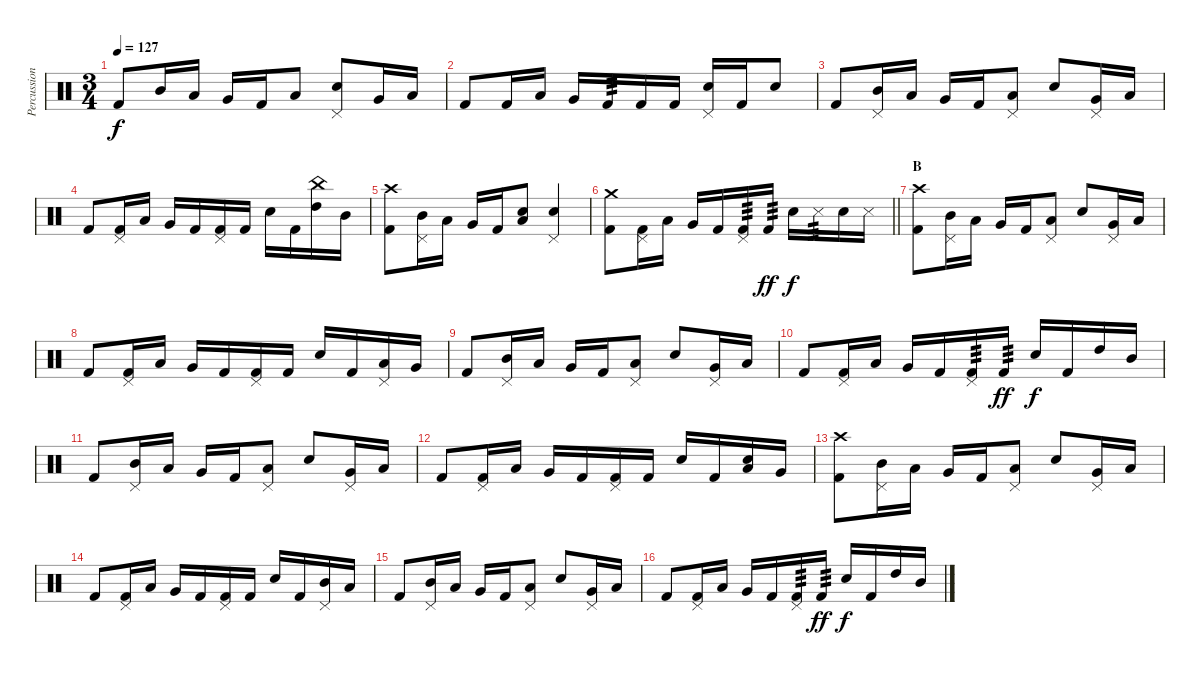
\track ("Percussion" "Percussion") {instrument percussion}
\staff {score}
\articulation defaults
\ts (3 4)
\tempo 127
\clef neutral
\ks c "Kick (hit) 2".8{dy f} "Mid Tom (hit)".16 "Low Tom (hit)".16 "Very Low Tom (hit)".16 "Kick (hit) 2".16 "Low Tom (hit)".8
("Pedal Hi-Hat (hit)" "Snare (hit) 2").8 "Very Low Tom (hit)".16 "Low Floor Tom (hit)".16 |
"Kick (hit) 2".8 "Kick (hit) 2".16 "Low Tom (hit)".16 "Very Low Tom (hit)".16 "Kick (hit) 2".16{tp 3} "Kick (hit) 2".16 "Kick (hit) 2".16 ("Pedal Hi-Hat (hit)" "Snare (hit) 2").16 "Kick (hit) 2".16 "Snare (hit)".8 |
"Kick (hit) 2".8 ("Pedal Hi-Hat (hit)" "Mid Tom (hit)").16 "Low Tom (hit)".16 "Very Low Tom (hit)".16 "Kick (hit) 2".16 ("Pedal Hi-Hat (hit)" "Low Tom (hit)").8 "Snare (hit) 2".8 ("Pedal Hi-Hat (hit)" "Very Low Tom (hit)").16 "Low Floor Tom (hit)".16 |
"Kick (hit) 2".8 ("Pedal Hi-Hat (hit)" "Kick (hit) 2").16 "Low Tom (hit)".16 "Very Low Tom (hit)".16 "Kick (hit) 2".16 ("Pedal Hi-Hat (hit)" "Kick (hit) 2").16 "Kick (hit) 2".16 "Snare (hit) 2".16 "Kick (hit) 2".16 ("China (hit)" "High Tom (hit)").16 "Mid Tom (hit)".16 |
("Crash high (hit)" "Kick (hit) 2").8 ("Pedal Hi-Hat (hit)" "Mid Tom (hit)").16 "Low Tom (hit)".16 "Very Low Tom (hit)".16 "Kick (hit) 2".16 ("Snare (hit)" "Low Tom (hit)").8 ("Pedal Hi-Hat (hit)" "Snare (hit) 2").4 |
\barLineRight lightlight
("Crash medium (hit)" "Kick (hit) 2").8 ("Pedal Hi-Hat (hit)" "Kick (hit) 2").16 "Low Tom (hit)".16 "Very Low Tom (hit)".16 "Kick (hit) 2".16 ("Pedal Hi-Hat (hit)" "Kick (hit) 2").16{tp 3} "Kick (hit) 2".16{tp 3 dy ff} "Snare (hit) 2".16{dy f} "Metronome (hit)".16{tp 3} "Snare (hit) 2".16 "Metronome (hit)".16 |
\section ("" "B")
("Crash high (hit)" "Kick (hit) 2").8 ("Pedal Hi-Hat (hit)" "Mid Tom (hit)").16 "Low Tom (hit)".16 "Very Low Tom (hit)".16 "Kick (hit) 2".16 ("Pedal Hi-Hat (hit)" "Low Tom (hit)").8 "Snare (hit) 2".8 ("Pedal Hi-Hat (hit)" "Very Low Tom (hit)").16 "Low Floor Tom (hit)".16 |
"Kick (hit) 2".8 ("Pedal Hi-Hat (hit)" "Kick (hit) 2").16 "Low Tom (hit)".16 "Very Low Tom (hit)".16 "Kick (hit) 2".16 ("Pedal Hi-Hat (hit)" "Kick (hit) 2").16 "Kick (hit) 2".16 "Snare (hit) 2".16 "Kick (hit) 2".16 ("Pedal Hi-Hat (hit)" "Low Tom (hit)").16 "Very Low Tom (hit)".16 |
"Kick (hit) 2".8 ("Pedal Hi-Hat (hit)" "Mid Tom (hit)").16 "Low Tom (hit)".16 "Very Low Tom (hit)".16 "Kick (hit) 2".16 ("Pedal Hi-Hat (hit)" "Low Tom (hit)").8 "Snare (hit) 2".8 ("Pedal Hi-Hat (hit)" "Very Low Tom (hit)").16 "Low Floor Tom (hit)".16 |
"Kick (hit) 2".8 ("Pedal Hi-Hat (hit)" "Kick (hit) 2").16 "Low Tom (hit)".16 "Very Low Tom (hit)".16 "Kick (hit) 2".16 ("Pedal Hi-Hat (hit)" "Kick (hit) 2").16{tp 3} "Kick (hit) 2".16{tp 3 dy ff} "Snare (hit) 2".16{dy f} "Kick (hit) 2".16 "High Tom (hit)".16 "Mid Tom (hit)".16 |
"Kick (hit) 2".8 ("Pedal Hi-Hat (hit)" "Mid Tom (hit)").16 "Low Tom (hit)".16 "Very Low Tom (hit)".16 "Kick (hit) 2".16 ("Pedal Hi-Hat (hit)" "Low Tom (hit)").8 "Snare (hit) 2".8 ("Pedal Hi-Hat (hit)" "Very Low Tom (hit)").16 "Low Floor Tom (hit)".16 |
"Kick (hit) 2".8 ("Pedal Hi-Hat (hit)" "Kick (hit) 2").16 "Low Tom (hit)".16 "Very Low Tom (hit)".16 "Kick (hit) 2".16 ("Pedal Hi-Hat (hit)" "Kick (hit) 2").16 "Kick (hit) 2".16 "Snare (hit) 2".16 "Kick (hit) 2".16 ("Snare (hit)" "Low Tom (hit)").16 "Very Low Tom (hit)".16 |
("Crash high (hit)" "Kick (hit) 2").8 ("Pedal Hi-Hat (hit)" "Mid Tom (hit)").16 "Low Tom (hit)".16 "Very Low Tom (hit)".16 "Kick (hit) 2".16 ("Pedal Hi-Hat (hit)" "Low Tom (hit)").8 "Snare (hit) 2".8 ("Pedal Hi-Hat (hit)" "Very Low Tom (hit)").16 "Low Floor Tom (hit)".16 |
"Kick (hit) 2".8 ("Pedal Hi-Hat (hit)" "Kick (hit) 2").16 "Low Tom (hit)".16 "Very Low Tom (hit)".16 "Kick (hit) 2".16 ("Pedal Hi-Hat (hit)" "Kick (hit) 2").16 "Kick (hit) 2".16 "Snare (hit) 2".16 "Kick (hit) 2".16 ("Pedal Hi-Hat (hit)" "Mid Tom (hit)").16 "Low Tom (hit)".16 |
"Kick (hit) 2".8 ("Pedal Hi-Hat (hit)" "Mid Tom (hit)").16 "Low Tom (hit)".16 "Very Low Tom (hit)".16 "Kick (hit) 2".16 ("Pedal Hi-Hat (hit)" "Low Tom (hit)").8 "Snare (hit) 2".8 ("Pedal Hi-Hat (hit)" "Very Low Tom (hit)").16 "Low Floor Tom (hit)".16 |
"Kick (hit) 2".8 ("Pedal Hi-Hat (hit)" "Kick (hit) 2").16 "Low Tom (hit)".16 "Very Low Tom (hit)".16 "Kick (hit) 2".16 ("Pedal Hi-Hat (hit)" "Kick (hit) 2").16{tp 3} "Kick (hit) 2".16{tp 3 dy ff} "Snare (hit) 2".16{dy f} "Kick (hit) 2".16 "High Tom (hit)".16 "Mid Tom (hit)".16
